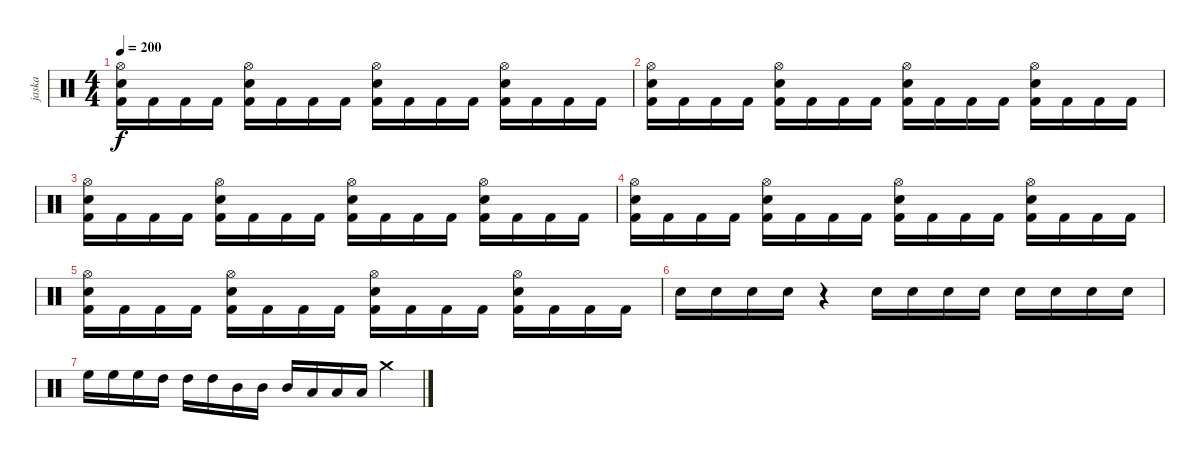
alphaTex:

\track ("jaska" "jaska") {instrument percussion}
\staff {score}
\articulation defaults
\ts (4 4)
\tempo 200
\clef neutral
\ks c
("Hi-Hat (open)" "Snare (hit) 2" "Kick (hit) 2").16{dy f} "Kick (hit) 2".16 "Kick (hit) 2".16 "Kick (hit) 2".16 ("Hi-Hat (open)" "Snare (hit) 2" "Kick (hit) 2").16 "Kick (hit) 2".16 "Kick (hit) 2".16 "Kick (hit) 2".16 ("Hi-Hat (open)" "Snare (hit) 2" "Kick (hit) 2").16 "Kick (hit) 2".16 "Kick (hit) 2".16 "Kick (hit) 2".16 ("Hi-Hat (open)" "Snare (hit) 2" "Kick (hit) 2").16 "Kick (hit) 2".16 "Kick (hit) 2".16 "Kick (hit) 2".16 |
("Hi-Hat (open)" "Snare (hit) 2" "Kick (hit) 2").16 "Kick (hit) 2".16 "Kick (hit) 2".16 "Kick (hit) 2".16 ("Hi-Hat (open)" "Snare (hit) 2" "Kick (hit) 2").16 "Kick (hit) 2".16 "Kick (hit) 2".16 "Kick (hit) 2".16 ("Hi-Hat (open)" "Snare (hit) 2" "Kick (hit) 2").16 "Kick (hit) 2".16 "Kick (hit) 2".16 "Kick (hit) 2".16 ("Hi-Hat (open)" "Snare (hit) 2" "Kick (hit) 2").16 "Kick (hit) 2".16 "Kick (hit) 2".16 "Kick (hit) 2".16 |
("Hi-Hat (open)" "Snare (hit) 2" "Kick (hit) 2").16 "Kick (hit) 2".16 "Kick (hit) 2".16 "Kick (hit) 2".16 ("Hi-Hat (open)" "Snare (hit) 2" "Kick (hit) 2").16 "Kick (hit) 2".16 "Kick (hit) 2".16 "Kick (hit) 2".16 ("Hi-Hat (open)" "Snare (hit) 2" "Kick (hit) 2").16 "Kick (hit) 2".16 "Kick (hit) 2".16 "Kick (hit) 2".16 ("Hi-Hat (open)" "Snare (hit) 2" "Kick (hit) 2").16 "Kick (hit) 2".16 "Kick (hit) 2".16 "Kick (hit) 2".16 |
("Hi-Hat (open)" "Snare (hit) 2" "Kick (hit) 2").16 "Kick (hit) 2".16 "Kick (hit) 2".16 "Kick (hit) 2".16 ("Hi-Hat (open)" "Snare (hit) 2" "Kick (hit) 2").16 "Kick (hit) 2".16 "Kick (hit) 2".16 "Kick (hit) 2".16 ("Hi-Hat (open)" "Snare (hit) 2" "Kick (hit) 2").16 "Kick (hit) 2".16 "Kick (hit) 2".16 "Kick (hit) 2".16 ("Hi-Hat (open)" "Snare (hit) 2" "Kick (hit) 2").16 "Kick (hit) 2".16 "Kick (hit) 2".16 "Kick (hit) 2".16 |
("Hi-Hat (open)" "Snare (hit) 2" "Kick (hit) 2").16 "Kick (hit) 2".16 "Kick (hit) 2".16 "Kick (hit) 2".16 ("Hi-Hat (open)" "Snare (hit) 2" "Kick (hit) 2").16 "Kick (hit) 2".16 "Kick (hit) 2".16 "Kick (hit) 2".16 ("Hi-Hat (open)" "Snare (hit) 2" "Kick (hit) 2").16 "Kick (hit) 2".16 "Kick (hit) 2".16 "Kick (hit) 2".16 ("Hi-Hat (open)" "Snare (hit) 2" "Kick (hit) 2").16 "Kick (hit) 2".16 "Kick (hit) 2".16 "Kick (hit) 2".16 |
"Electric Snare (hit)".16 "Electric Snare (hit)".16 "Electric Snare (hit)".16 "Electric Snare (hit)".16 r.4 "Electric Snare (hit)".16 "Electric Snare (hit)".16 "Electric Snare (hit)".16 "Electric Snare (hit)".16 "Electric Snare (hit)".16 "Electric Snare (hit)".16 "Electric Snare (hit)".16 "Electric Snare (hit)".16 |
"High Floor Tom (hit)".16 "High Floor Tom (hit)".16 "High Floor Tom (hit)".16 "High Tom (hit)".16 "High Tom (hit)".16 "High Tom (hit)".16 "Mid Tom (hit)".16 "Mid Tom (hit)".16 "Mid Tom (hit)".16 "Low Tom (hit)".16 "Low Tom (hit)".16 "Low Tom (hit)".16 "Crash medium (hit)".4
